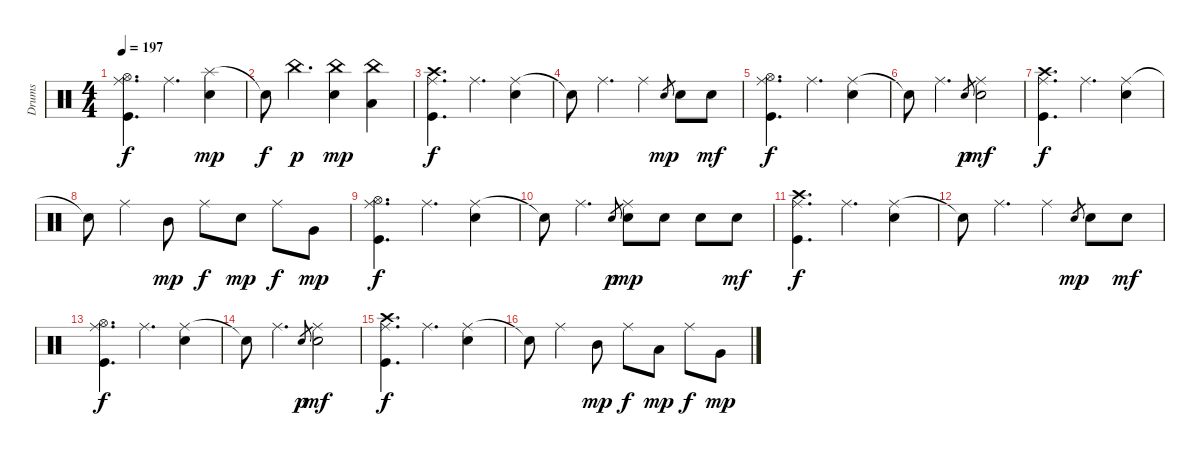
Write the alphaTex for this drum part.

\track ("Drums" "Drums") {instrument percussion}
\staff {score}
\articulation defaults
\ts (4 4)
\tempo 197
\clef neutral
\ks c
("Hi-Hat (open)" "Ride (middle)" "Kick (hit)").4{d dy f} "Ride (middle)".4{d} ("Splash (hit)" "Electric Snare (hit)").4{dy mp} |
"Snare (hit)"{t}.8{dy f} "China (hit)".4{d dy p} ("China (hit)" "Electric Snare (hit)").4{dy mp} ("China (hit)" "Low Tom (hit)").4 |
("Crash high (hit)" "Ride (middle)" "Kick (hit)").4{d dy f} "Ride (middle)".4{d} ("Ride (middle)" "Electric Snare (hit)").4 |
"Snare (hit)"{t}.8 "Ride (middle)".4{d} "Ride (middle)".4 "Electric Snare (hit)".8{gr dy mp} "Electric Snare (hit)".8 "Electric Snare (hit)".8{dy mf} |
("Hi-Hat (open)" "Ride (middle)" "Kick (hit)").4{d dy f} "Ride (middle)".4{d} ("Ride (middle)" "Electric Snare (hit)").4 |
"Snare (hit)"{t}.8 "Ride (middle)".4{d} "Electric Snare (hit)".8{gr dy p} ("Ride (middle)" "Electric Snare (hit)").2{dy mf} |
("Crash high (hit)" "Ride (middle)" "Kick (hit)").4{d dy f} "Ride (middle)".4{d} ("Ride (middle)" "Electric Snare (hit)").4 |
"Snare (hit)"{t}.8 "Ride (middle)".4 "Mid Tom (hit)".8{dy mp} "Ride (middle)".8{dy f} "Electric Snare (hit)".8{dy mp} "Ride (middle)".8{dy f} "Very Low Tom (hit)".8{dy mp} |
("Hi-Hat (open)" "Ride (middle)" "Kick (hit)").4{d dy f} "Ride (middle)".4{d} ("Ride (middle)" "Electric Snare (hit)").4 |
"Snare (hit)"{t}.8 "Ride (middle)".4{d} "Electric Snare (hit)".8{gr dy p} ("Ride (middle)" "Electric Snare (hit)").8{dy mp} "Electric Snare (hit)".8 "Electric Snare (hit)".8 "Electric Snare (hit)".8{dy mf} |
("Crash high (hit)" "Ride (middle)" "Kick (hit)").4{d dy f} "Ride (middle)".4{d} ("Ride (middle)" "Electric Snare (hit)").4 |
"Snare (hit)"{t}.8 "Ride (middle)".4{d} "Ride (middle)".4 "Electric Snare (hit)".8{gr dy mp} "Electric Snare (hit)".8 "Electric Snare (hit)".8{dy mf} |
("Hi-Hat (open)" "Ride (middle)" "Kick (hit)").4{d dy f} "Ride (middle)".4{d} ("Ride (middle)" "Electric Snare (hit)").4 |
"Snare (hit)"{t}.8 "Ride (middle)".4{d} "Electric Snare (hit)".8{gr dy p} ("Ride (middle)" "Electric Snare (hit)").2{dy mf} |
("Crash high (hit)" "Ride (middle)" "Kick (hit)").4{d dy f} "Ride (middle)".4{d} ("Ride (middle)" "Electric Snare (hit)").4 |
"Snare (hit)"{t}.8 "Ride (middle)".4 "Mid Tom (hit)".8{dy mp} "Ride (middle)".8{dy f} "Low Tom (hit)".8{dy mp} "Ride (middle)".8{dy f} "Very Low Tom (hit)".8{dy mp}
